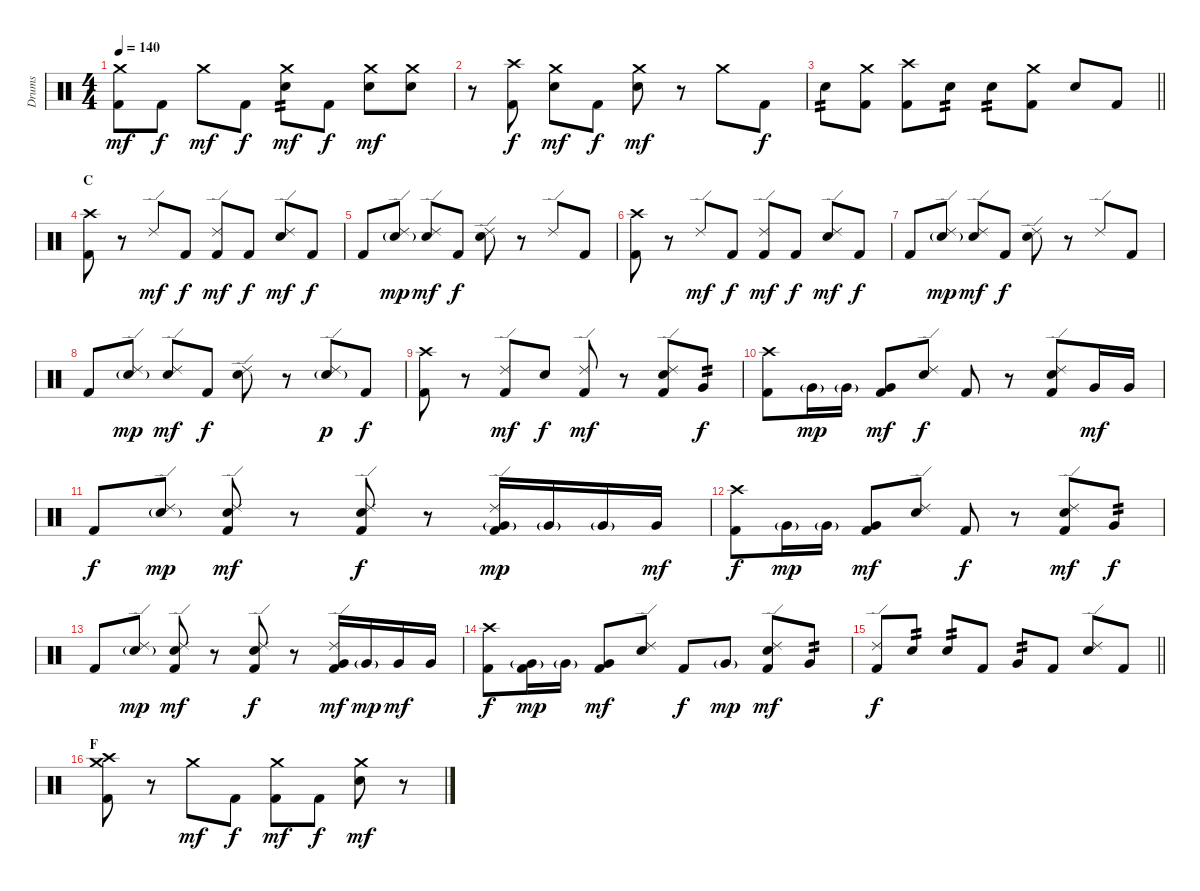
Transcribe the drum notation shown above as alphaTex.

\track ("Drums" "Drums") {instrument percussion}
\staff {score}
\articulation defaults
\ts (4 4)
\tempo 140
\clef neutral
\ks c
("Crash medium (hit)" "Kick (hit) 2").8{dy mf} "Kick (hit) 2".8{dy f} "Crash medium (hit)".8{dy mf} "Kick (hit) 2".8{dy f} ("Crash medium (hit)" "Snare (hit) 2").8{tp 2 dy mf} "Kick (hit) 2".8{dy f} ("Crash medium (hit)" "Snare (hit) 2").8{dy mf} ("Crash medium (hit)" "Snare (hit) 2").8 |
r.8 ("Crash high (hit)" "Kick (hit) 2").8{dy f} ("Crash medium (hit)" "Snare (hit) 2").8{dy mf} "Kick (hit) 2".8{dy f} ("Crash medium (hit)" "Snare (hit) 2").8{dy mf} r.8 "Crash medium (hit)".8 "Kick (hit) 2".8{dy f} |
\barLineRight lightlight "Snare (hit) 2".8{tp 2}
("Crash medium (hit)" "Kick (hit) 2").8 ("Crash high (hit)" "Kick (hit) 2").8 "Snare (hit) 2".8{tp 2} "Snare (hit) 2".8{tp 2} ("Crash medium (hit)" "Kick (hit) 2").8 "Snare (hit) 2".8 "Kick (hit) 2".8 |
\section ("" "C")
("Crash high (hit)" "Kick (hit) 2").8 r.8 "Ride (edge) 2".8{dy mf} "Kick (hit) 2".8{dy f} ("Ride (edge) 2" "Kick (hit) 2").8{dy mf} "Kick (hit) 2".8{dy f} ("Ride (edge) 2" "Snare (hit) 2").8{dy mf} "Kick (hit) 2".8{dy f} |
"Kick (hit) 2".8 ("Ride (edge) 2" "Snare (hit) 2"{g}).8{dy mp} ("Ride (edge) 2" "Snare (hit) 2").8{dy mf} "Kick (hit) 2".8{dy f} ("Ride (edge) 2" "Snare (hit) 2").8 r.8 "Ride (edge) 2".8 "Kick (hit) 2".8 |
("Crash high (hit)" "Kick (hit) 2").8 r.8 "Ride (edge) 2".8{dy mf} "Kick (hit) 2".8{dy f} ("Ride (edge) 2" "Kick (hit) 2").8{dy mf} "Kick (hit) 2".8{dy f} ("Ride (edge) 2" "Snare (hit) 2").8{dy mf} "Kick (hit) 2".8{dy f} |
"Kick (hit) 2".8 ("Ride (edge) 2" "Snare (hit) 2"{g}).8{dy mp} ("Ride (edge) 2" "Snare (hit) 2").8{dy mf} "Kick (hit) 2".8{dy f} ("Ride (edge) 2" "Snare (hit) 2").8 r.8 "Ride (edge) 2".8 "Kick (hit) 2".8 |
"Kick (hit) 2".8 ("Ride (edge) 2" "Snare (hit) 2"{g}).8{dy mp} ("Ride (edge) 2" "Snare (hit) 2").8{dy mf} "Kick (hit) 2".8{dy f} ("Ride (edge) 2" "Snare (hit) 2").8 r.8 ("Ride (edge) 2" "Snare (hit) 2"{g}).8{dy p} "Kick (hit) 2".8{dy f} |
("Crash high (hit)" "Kick (hit) 2").8 r.8 ("Ride (edge) 2" "Kick (hit) 2").8{dy mf} "Snare (hit) 2".8{dy f} ("Ride (edge) 2" "Kick (hit) 2").8{dy mf} r.8 ("Ride (edge) 2" "Snare (hit) 2" "Kick (hit) 2").8 "Very Low Tom (hit)".8{tp 2 dy f} |
("Crash high (hit)" "Kick (hit) 2").8 "Very Low Tom (hit)"{g}.16{dy mp} "Very Low Tom (hit)"{g}.16 ("Very Low Tom (hit)" "Kick (hit) 2").8{dy mf} ("Ride (edge) 2" "Snare (hit) 2").8{dy f} "Kick (hit) 2".8 r.8 ("Ride (edge) 2" "Snare (hit) 2" "Kick (hit) 2").8 "Very Low Tom (hit)".16{dy mf} "Very Low Tom (hit)".16 |
"Kick (hit) 2".8{dy f} ("Ride (edge) 2" "Snare (hit) 2"{g}).8{dy mp} ("Ride (edge) 2" "Snare (hit) 2" "Kick (hit) 2").8{dy mf} r.8 ("Ride (edge) 2" "Snare (hit) 2" "Kick (hit) 2").8{dy f} r.8 ("Ride (edge) 2" "Very Low Tom (hit)"{g} "Kick (hit) 2").16{dy mp} "Very Low Tom (hit)"{g}.16 "Very Low Tom (hit)"{g}.16 "Very Low Tom (hit)".16{dy mf} |
("Crash high (hit)" "Kick (hit) 2").8{dy f} "Very Low Tom (hit)"{g}.16{dy mp} "Very Low Tom (hit)"{g}.16 ("Very Low Tom (hit)" "Kick (hit) 2").8{dy mf} ("Ride (edge) 2" "Snare (hit) 2").8 "Kick (hit) 2".8{dy f} r.8 ("Ride (edge) 2" "Snare (hit) 2" "Kick (hit) 2").8{dy mf} "Very Low Tom (hit)".8{tp 2 dy f} |
"Kick (hit) 2".8 ("Ride (edge) 2" "Snare (hit) 2"{g}).8{dy mp} ("Ride (edge) 2" "Snare (hit) 2" "Kick (hit) 2").8{dy mf} r.8 ("Ride (edge) 2" "Snare (hit) 2" "Kick (hit) 2").8{dy f} r.8 ("Ride (edge) 2" "Very Low Tom (hit)" "Kick (hit) 2").16{dy mf} "Very Low Tom (hit)"{g}.16{dy mp} "Very Low Tom (hit)".16{dy mf} "Very Low Tom (hit)".16 |
("Crash high (hit)" "Kick (hit) 2").8{dy f} ("Very Low Tom (hit)"{g} "Kick (hit) 2").16{dy mp} "Very Low Tom (hit)"{g}.16 ("Very Low Tom (hit)" "Kick (hit) 2").8{dy mf} ("Ride (edge) 2" "Snare (hit) 2").8 "Kick (hit) 2".8{dy f} "Very Low Tom (hit)"{g}.8{dy mp} ("Ride (edge) 2" "Snare (hit) 2" "Kick (hit) 2").8{dy mf} "Very Low Tom (hit)".8{tp 2} |
\barLineRight lightlight
("Ride (edge) 2" "Kick (hit) 2").8{dy f} "Snare (hit) 2".8{tp 2} "Snare (hit) 2".8{tp 2} "Kick (hit) 2".8 "Very Low Tom (hit)".8{tp 2} "Kick (hit) 2".8 ("Ride (edge) 2" "Snare (hit) 2").8 "Kick (hit) 2".8 |
\section ("" "F")
("Crash high (hit)" "Crash medium (hit)" "Kick (hit) 2").8 r.8 "Crash medium (hit)".8{dy mf} "Kick (hit) 2".8{dy f} ("Crash medium (hit)" "Kick (hit) 2").8{dy mf} "Kick (hit) 2".8{dy f} ("Crash medium (hit)" "Snare (hit) 2").8{dy mf} r.8
